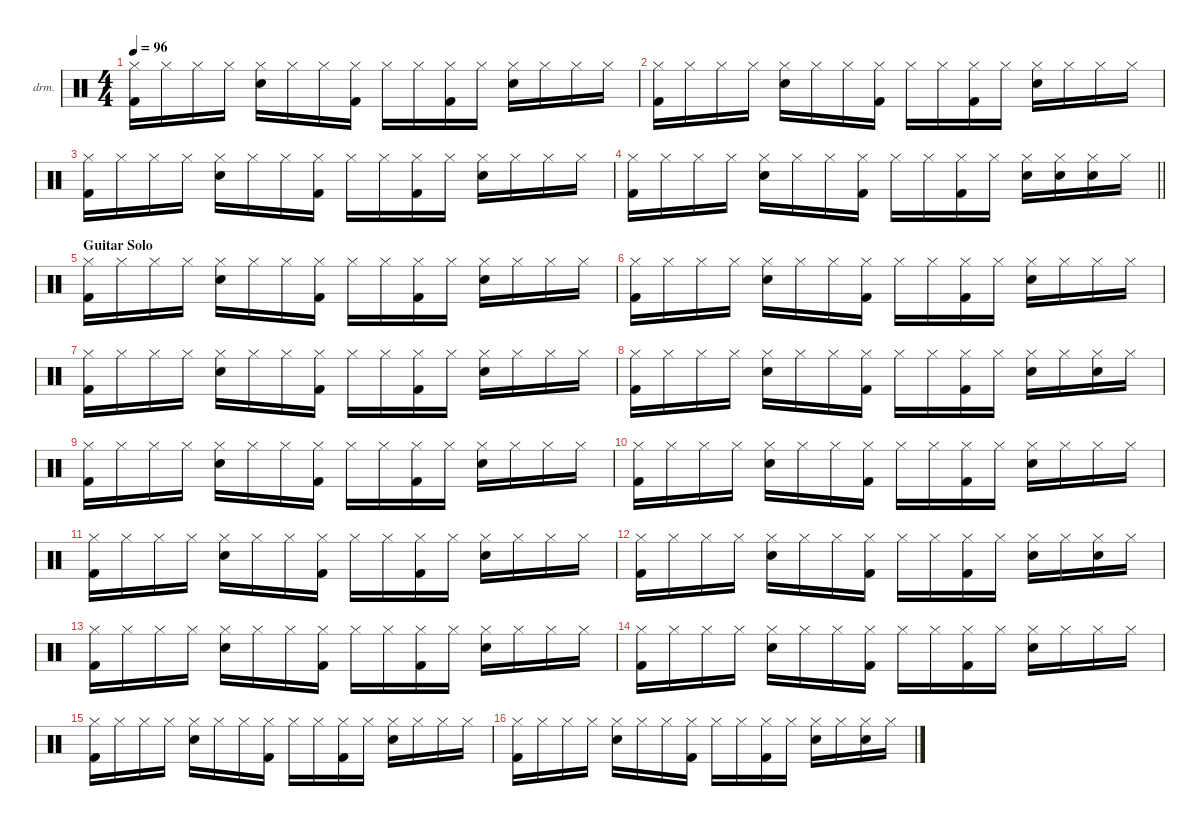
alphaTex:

\defaultSystemsLayout 4
\hideDynamics
\bracketExtendMode nobrackets
\firstSystemTrackNameOrientation horizontal
\otherSystemsTrackNameOrientation horizontal
\track ("Percussion" "drm.") {instrument percussion}
\staff {score}
\articulation defaults
\ts (4 4)
\tempo 96
\clef neutral
\ks c
("Hi-Hat (closed)" "Kick (hit) 2").16{dy pp} "Hi-Hat (closed)".16 "Hi-Hat (closed)".16 "Hi-Hat (closed)".16 ("Hi-Hat (closed)" "Snare (hit) 2").16 "Hi-Hat (closed)".16 "Hi-Hat (closed)".16 ("Hi-Hat (closed)" "Kick (hit) 2").16 "Hi-Hat (closed)".16 "Hi-Hat (closed)".16 ("Hi-Hat (closed)" "Kick (hit) 2").16 "Hi-Hat (closed)".16 ("Hi-Hat (closed)" "Snare (hit) 2").16 "Hi-Hat (closed)".16 "Hi-Hat (closed)".16 "Hi-Hat (closed)".16 |
("Hi-Hat (closed)" "Kick (hit) 2").16 "Hi-Hat (closed)".16 "Hi-Hat (closed)".16 "Hi-Hat (closed)".16 ("Hi-Hat (closed)" "Snare (hit) 2").16 "Hi-Hat (closed)".16 "Hi-Hat (closed)".16 ("Hi-Hat (closed)" "Kick (hit) 2").16 "Hi-Hat (closed)".16 "Hi-Hat (closed)".16 ("Hi-Hat (closed)" "Kick (hit) 2").16 "Hi-Hat (closed)".16 ("Hi-Hat (closed)" "Snare (hit) 2").16 "Hi-Hat (closed)".16 "Hi-Hat (closed)".16 "Hi-Hat (closed)".16 |
("Hi-Hat (closed)" "Kick (hit) 2").16 "Hi-Hat (closed)".16 "Hi-Hat (closed)".16 "Hi-Hat (closed)".16 ("Hi-Hat (closed)" "Snare (hit) 2").16 "Hi-Hat (closed)".16 "Hi-Hat (closed)".16 ("Hi-Hat (closed)" "Kick (hit) 2").16 "Hi-Hat (closed)".16 "Hi-Hat (closed)".16 ("Hi-Hat (closed)" "Kick (hit) 2").16 "Hi-Hat (closed)".16 ("Hi-Hat (closed)" "Snare (hit) 2").16 "Hi-Hat (closed)".16 "Hi-Hat (closed)".16 "Hi-Hat (closed)".16 |
\barLineRight lightlight
("Hi-Hat (closed)" "Kick (hit) 2").16 "Hi-Hat (closed)".16 "Hi-Hat (closed)".16 "Hi-Hat (closed)".16 ("Hi-Hat (closed)" "Snare (hit) 2").16 "Hi-Hat (closed)".16 "Hi-Hat (closed)".16 ("Hi-Hat (closed)" "Kick (hit) 2").16 "Hi-Hat (closed)".16 "Hi-Hat (closed)".16 ("Hi-Hat (closed)" "Kick (hit) 2").16 "Hi-Hat (closed)".16 ("Hi-Hat (closed)" "Snare (hit) 2").16 ("Hi-Hat (closed)" "Snare (hit) 2").16 ("Hi-Hat (closed)" "Snare (hit) 2").16 "Hi-Hat (closed)".16 |
\section ("" "Guitar Solo")
("Hi-Hat (closed)" "Kick (hit) 2").16 "Hi-Hat (closed)".16 "Hi-Hat (closed)".16 "Hi-Hat (closed)".16 ("Hi-Hat (closed)" "Snare (hit) 2").16 "Hi-Hat (closed)".16 "Hi-Hat (closed)".16 ("Hi-Hat (closed)" "Kick (hit) 2").16 "Hi-Hat (closed)".16 "Hi-Hat (closed)".16 ("Hi-Hat (closed)" "Kick (hit) 2").16 "Hi-Hat (closed)".16 ("Hi-Hat (closed)" "Snare (hit) 2").16 "Hi-Hat (closed)".16 "Hi-Hat (closed)".16 "Hi-Hat (closed)".16 |
("Hi-Hat (closed)" "Kick (hit) 2").16 "Hi-Hat (closed)".16 "Hi-Hat (closed)".16 "Hi-Hat (closed)".16 ("Hi-Hat (closed)" "Snare (hit) 2").16 "Hi-Hat (closed)".16 "Hi-Hat (closed)".16 ("Hi-Hat (closed)" "Kick (hit) 2").16 "Hi-Hat (closed)".16 "Hi-Hat (closed)".16 ("Hi-Hat (closed)" "Kick (hit) 2").16 "Hi-Hat (closed)".16 ("Hi-Hat (closed)" "Snare (hit) 2").16 "Hi-Hat (closed)".16 "Hi-Hat (closed)".16 "Hi-Hat (closed)".16 |
("Hi-Hat (closed)" "Kick (hit) 2").16 "Hi-Hat (closed)".16 "Hi-Hat (closed)".16 "Hi-Hat (closed)".16 ("Hi-Hat (closed)" "Snare (hit) 2").16 "Hi-Hat (closed)".16 "Hi-Hat (closed)".16 ("Hi-Hat (closed)" "Kick (hit) 2").16 "Hi-Hat (closed)".16 "Hi-Hat (closed)".16 ("Hi-Hat (closed)" "Kick (hit) 2").16 "Hi-Hat (closed)".16 ("Hi-Hat (closed)" "Snare (hit) 2").16 "Hi-Hat (closed)".16 "Hi-Hat (closed)".16 "Hi-Hat (closed)".16 |
("Hi-Hat (closed)" "Kick (hit) 2").16 "Hi-Hat (closed)".16 "Hi-Hat (closed)".16 "Hi-Hat (closed)".16 ("Hi-Hat (closed)" "Snare (hit) 2").16 "Hi-Hat (closed)".16 "Hi-Hat (closed)".16 ("Hi-Hat (closed)" "Kick (hit) 2").16 "Hi-Hat (closed)".16 "Hi-Hat (closed)".16 ("Hi-Hat (closed)" "Kick (hit) 2").16 "Hi-Hat (closed)".16 ("Hi-Hat (closed)" "Snare (hit) 2").16 "Hi-Hat (closed)".16 ("Hi-Hat (closed)" "Snare (hit) 2").16 "Hi-Hat (closed)".16 |
("Hi-Hat (closed)" "Kick (hit) 2").16 "Hi-Hat (closed)".16 "Hi-Hat (closed)".16 "Hi-Hat (closed)".16 ("Hi-Hat (closed)" "Snare (hit) 2").16 "Hi-Hat (closed)".16 "Hi-Hat (closed)".16 ("Hi-Hat (closed)" "Kick (hit) 2").16 "Hi-Hat (closed)".16 "Hi-Hat (closed)".16 ("Hi-Hat (closed)" "Kick (hit) 2").16 "Hi-Hat (closed)".16 ("Hi-Hat (closed)" "Snare (hit) 2").16 "Hi-Hat (closed)".16 "Hi-Hat (closed)".16 "Hi-Hat (closed)".16 |
("Hi-Hat (closed)" "Kick (hit) 2").16 "Hi-Hat (closed)".16 "Hi-Hat (closed)".16 "Hi-Hat (closed)".16 ("Hi-Hat (closed)" "Snare (hit) 2").16 "Hi-Hat (closed)".16 "Hi-Hat (closed)".16 ("Hi-Hat (closed)" "Kick (hit) 2").16 "Hi-Hat (closed)".16 "Hi-Hat (closed)".16 ("Hi-Hat (closed)" "Kick (hit) 2").16 "Hi-Hat (closed)".16 ("Hi-Hat (closed)" "Snare (hit) 2").16 "Hi-Hat (closed)".16 "Hi-Hat (closed)".16 "Hi-Hat (closed)".16 |
("Hi-Hat (closed)" "Kick (hit) 2").16 "Hi-Hat (closed)".16 "Hi-Hat (closed)".16 "Hi-Hat (closed)".16 ("Hi-Hat (closed)" "Snare (hit) 2").16 "Hi-Hat (closed)".16 "Hi-Hat (closed)".16 ("Hi-Hat (closed)" "Kick (hit) 2").16 "Hi-Hat (closed)".16 "Hi-Hat (closed)".16 ("Hi-Hat (closed)" "Kick (hit) 2").16 "Hi-Hat (closed)".16 ("Hi-Hat (closed)" "Snare (hit) 2").16 "Hi-Hat (closed)".16 "Hi-Hat (closed)".16 "Hi-Hat (closed)".16 |
("Hi-Hat (closed)" "Kick (hit) 2").16 "Hi-Hat (closed)".16 "Hi-Hat (closed)".16 "Hi-Hat (closed)".16 ("Hi-Hat (closed)" "Snare (hit) 2").16 "Hi-Hat (closed)".16 "Hi-Hat (closed)".16 ("Hi-Hat (closed)" "Kick (hit) 2").16 "Hi-Hat (closed)".16 "Hi-Hat (closed)".16 ("Hi-Hat (closed)" "Kick (hit) 2").16 "Hi-Hat (closed)".16 ("Hi-Hat (closed)" "Snare (hit) 2").16 "Hi-Hat (closed)".16 ("Hi-Hat (closed)" "Snare (hit) 2").16 "Hi-Hat (closed)".16 |
("Hi-Hat (closed)" "Kick (hit) 2").16 "Hi-Hat (closed)".16 "Hi-Hat (closed)".16 "Hi-Hat (closed)".16 ("Hi-Hat (closed)" "Snare (hit) 2").16 "Hi-Hat (closed)".16 "Hi-Hat (closed)".16 ("Hi-Hat (closed)" "Kick (hit) 2").16 "Hi-Hat (closed)".16 "Hi-Hat (closed)".16 ("Hi-Hat (closed)" "Kick (hit) 2").16 "Hi-Hat (closed)".16 ("Hi-Hat (closed)" "Snare (hit) 2").16 "Hi-Hat (closed)".16 "Hi-Hat (closed)".16 "Hi-Hat (closed)".16 |
("Hi-Hat (closed)" "Kick (hit) 2").16 "Hi-Hat (closed)".16 "Hi-Hat (closed)".16 "Hi-Hat (closed)".16 ("Hi-Hat (closed)" "Snare (hit) 2").16 "Hi-Hat (closed)".16 "Hi-Hat (closed)".16 ("Hi-Hat (closed)" "Kick (hit) 2").16 "Hi-Hat (closed)".16 "Hi-Hat (closed)".16 ("Hi-Hat (closed)" "Kick (hit) 2").16 "Hi-Hat (closed)".16 ("Hi-Hat (closed)" "Snare (hit) 2").16 "Hi-Hat (closed)".16 "Hi-Hat (closed)".16 "Hi-Hat (closed)".16 |
("Hi-Hat (closed)" "Kick (hit) 2").16 "Hi-Hat (closed)".16 "Hi-Hat (closed)".16 "Hi-Hat (closed)".16 ("Hi-Hat (closed)" "Snare (hit) 2").16 "Hi-Hat (closed)".16 "Hi-Hat (closed)".16 ("Hi-Hat (closed)" "Kick (hit) 2").16 "Hi-Hat (closed)".16 "Hi-Hat (closed)".16 ("Hi-Hat (closed)" "Kick (hit) 2").16 "Hi-Hat (closed)".16 ("Hi-Hat (closed)" "Snare (hit) 2").16 "Hi-Hat (closed)".16 "Hi-Hat (closed)".16 "Hi-Hat (closed)".16 |
("Hi-Hat (closed)" "Kick (hit) 2").16 "Hi-Hat (closed)".16 "Hi-Hat (closed)".16 "Hi-Hat (closed)".16 ("Hi-Hat (closed)" "Snare (hit) 2").16 "Hi-Hat (closed)".16 "Hi-Hat (closed)".16 ("Hi-Hat (closed)" "Kick (hit) 2").16 "Hi-Hat (closed)".16 "Hi-Hat (closed)".16 ("Hi-Hat (closed)" "Kick (hit) 2").16 "Hi-Hat (closed)".16 ("Hi-Hat (closed)" "Snare (hit) 2").16 "Hi-Hat (closed)".16 ("Hi-Hat (closed)" "Snare (hit) 2").16 "Hi-Hat (closed)".16
